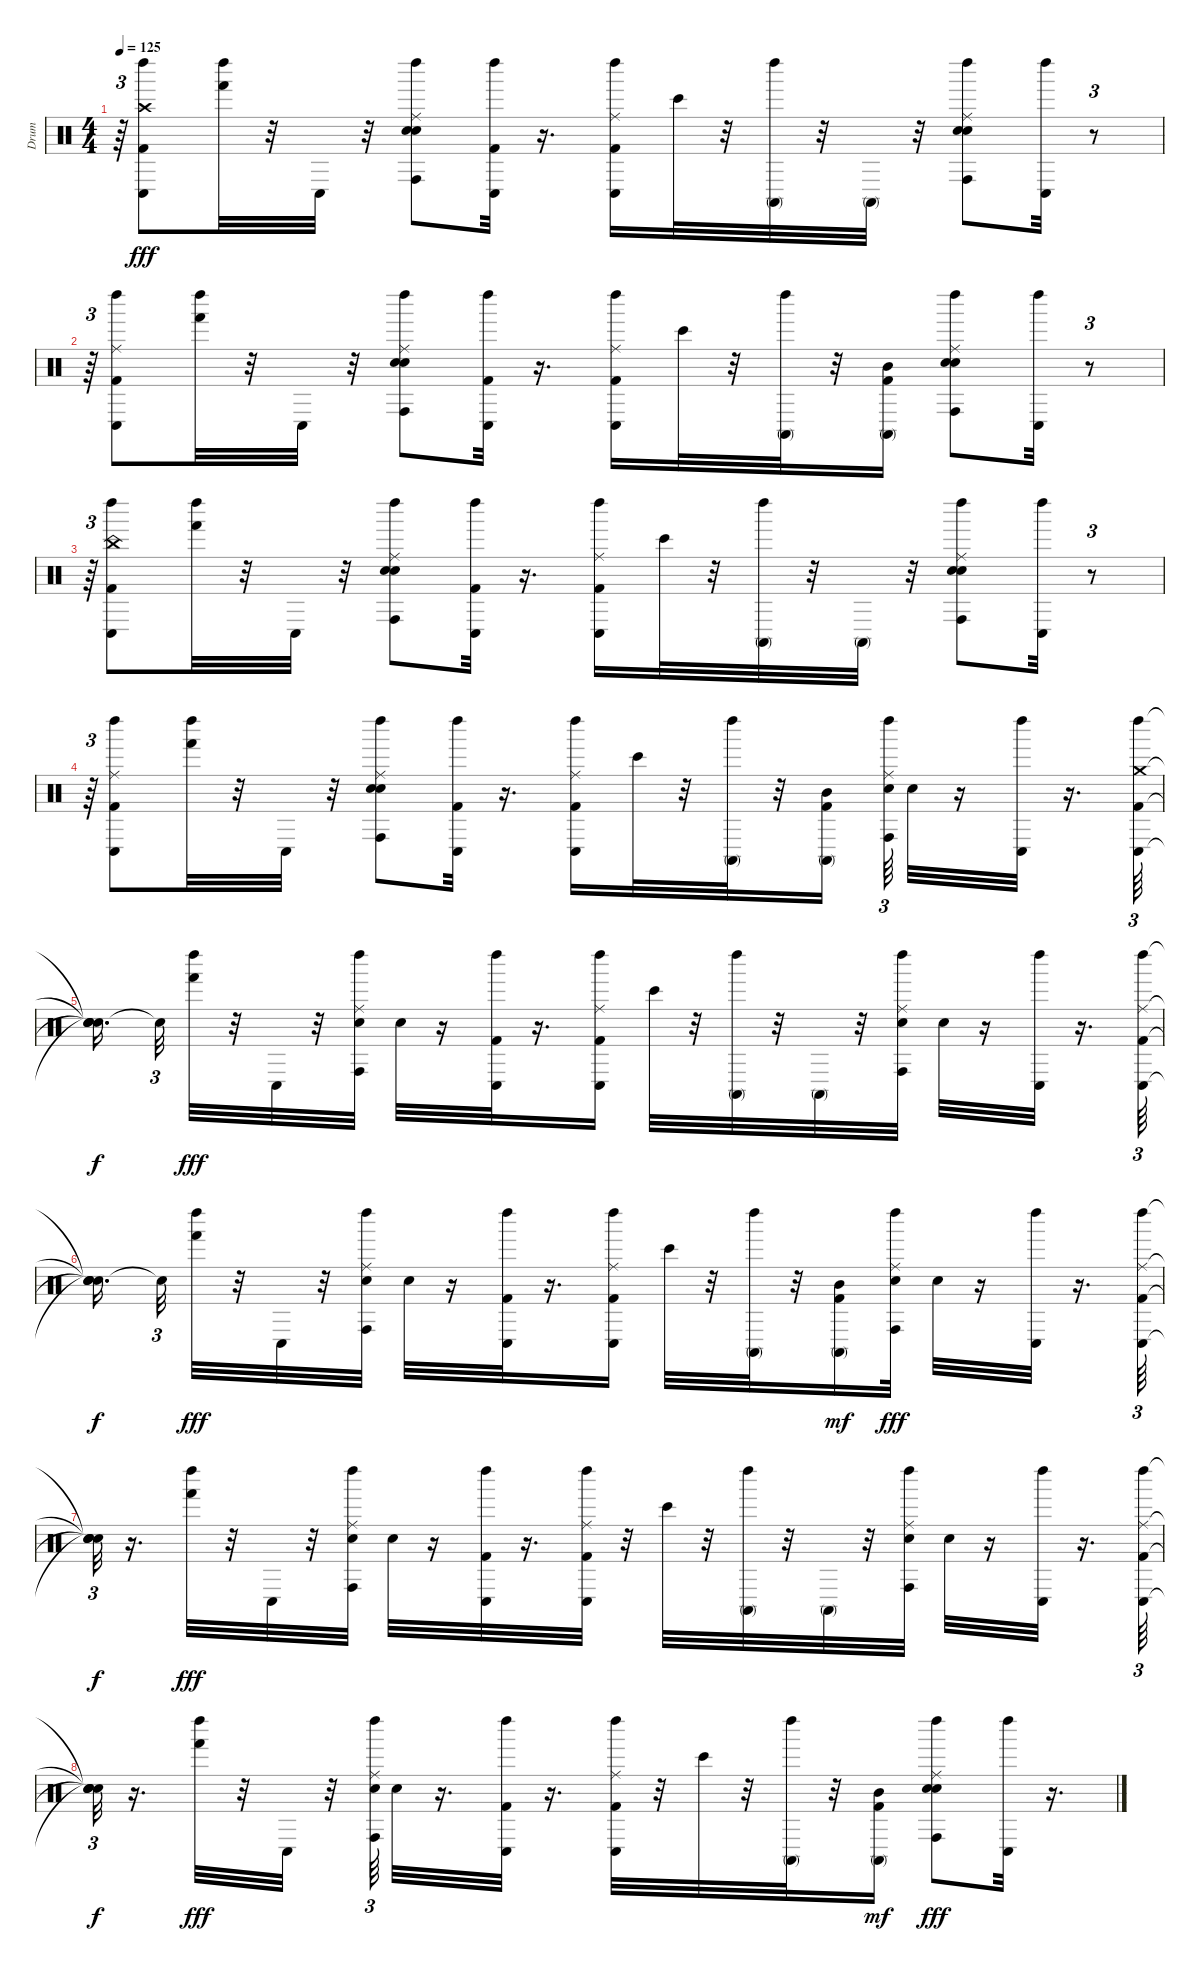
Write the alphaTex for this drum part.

\track ("Drum" "Drum") {instrument percussion}
\staff {score}
\articulation defaults
\ts (4 4)
\tempo 125
\clef neutral
\ks c
r.64{tu (3 2) dy fff} ("Kick (hit) 2" "Conga low (hit)" "Left Maraca (hit)" "Crash high (hit)").8 ("Hand (hit)" "Left Maraca (hit)").32 r.32 "Conga low (hit)".32 r.32 ("Conga high (hit)" "Left Maraca (hit)" "Electric Snare (hit)" "Ride (middle)" "Electric Snare (hit)").8 ("Kick (hit) 2" "Conga low (hit)" "Left Maraca (hit)").32 r.16{d} ("Kick (hit) 2" "Conga low (hit)" "Left Maraca (hit)" "Ride (middle)").16 "Bongo High (hit)".32 r.32 ("Conga high (mute)" "Left Maraca (hit)").32 r.32 "Conga high (mute)".32 r.32 ("Conga high (hit)" "Left Maraca (hit)" "Electric Snare (hit)" "Ride (middle)" "Electric Snare (hit)").8 ("Conga low (hit)" "Left Maraca (hit)").32 r.8{tu (3 2)} |
r.64{tu (3 2)} ("Kick (hit) 2" "Conga low (hit)" "Left Maraca (hit)" "Ride (middle)").8 ("Hand (hit)" "Left Maraca (hit)").32 r.32 "Conga low (hit)".32 r.32 ("Conga high (hit)" "Left Maraca (hit)" "Electric Snare (hit)" "Ride (middle)" "Electric Snare (hit)").8 ("Kick (hit) 2" "Conga low (hit)" "Left Maraca (hit)").32 r.16{d} ("Kick (hit) 2" "Conga low (hit)" "Left Maraca (hit)" "Ride (middle)").16 "Bongo High (hit)".32 r.32 ("Conga high (mute)" "Left Maraca (hit)").32 r.32 ("Kick (hit) 2" "Conga high (mute)" "Mid Tom (hit)").16 ("Conga high (hit)" "Left Maraca (hit)" "Electric Snare (hit)" "Ride (middle)" "Electric Snare (hit)").8 ("Conga low (hit)" "Left Maraca (hit)").32 r.8{tu (3 2)} |
r.64{tu (3 2)} ("Kick (hit) 2" "Conga low (hit)" "Left Maraca (hit)" "China (hit)").8 ("Hand (hit)" "Left Maraca (hit)").32 r.32 "Conga low (hit)".32 r.32 ("Conga high (hit)" "Left Maraca (hit)" "Electric Snare (hit)" "Ride (middle)" "Electric Snare (hit)").8 ("Kick (hit) 2" "Conga low (hit)" "Left Maraca (hit)").32 r.16{d} ("Kick (hit) 2" "Conga low (hit)" "Left Maraca (hit)" "Ride (middle)").16 "Bongo High (hit)".32 r.32 ("Conga high (mute)" "Left Maraca (hit)").32 r.32 "Conga high (mute)".32 r.32 ("Conga high (hit)" "Left Maraca (hit)" "Electric Snare (hit)" "Ride (middle)" "Electric Snare (hit)").8 ("Conga low (hit)" "Left Maraca (hit)").32 r.8{tu (3 2)} |
r.64{tu (3 2)} ("Kick (hit) 2" "Conga low (hit)" "Left Maraca (hit)" "Ride (middle)").8 ("Hand (hit)" "Left Maraca (hit)").32 r.32 "Conga low (hit)".32 r.32 ("Conga high (hit)" "Left Maraca (hit)" "Electric Snare (hit)" "Ride (middle)" "Electric Snare (hit)").8 ("Kick (hit) 2" "Conga low (hit)" "Left Maraca (hit)").32 r.16{d} ("Kick (hit) 2" "Conga low (hit)" "Left Maraca (hit)" "Ride (middle)").16 "Bongo High (hit)".32 r.32 ("Conga high (mute)" "Left Maraca (hit)").32 r.32 ("Kick (hit) 2" "Conga high (mute)" "Mid Tom (hit)").16 ("Conga high (hit)" "Left Maraca (hit)" "Electric Snare (hit)" "Ride (middle)").64{tu (3 2)} "Electric Snare (hit)".32 r.16 ("Conga low (hit)" "Left Maraca (hit)").32 r.16{d} ("Kick (hit) 2" "Conga low (hit)" "Left Maraca (hit)" "Crash medium (hit)").64{tu (3 2)} |
("Snare (hit)"{t} "Snare (hit)"{t} "Snare (hit)"{t} "Snare (hit)"{t}).16{d dy f beam splitsecondary} "Snare (hit)"{t}.32{tu (3 2)} ("Hand (hit)" "Left Maraca (hit)").32{dy fff} r.32 "Conga low (hit)".32 r.32 ("Conga high (hit)" "Left Maraca (hit)" "Electric Snare (hit)" "Ride (middle)").32 "Electric Snare (hit)".32 r.16 ("Kick (hit) 2" "Conga low (hit)" "Left Maraca (hit)").32 r.16{d} ("Kick (hit) 2" "Conga low (hit)" "Left Maraca (hit)" "Ride (middle)").16 "Bongo High (hit)".32 r.32 ("Conga high (mute)" "Left Maraca (hit)").32 r.32 "Conga high (mute)".32 r.32 ("Conga high (hit)" "Left Maraca (hit)" "Electric Snare (hit)" "Ride (middle)").32 "Electric Snare (hit)".32 r.16 ("Conga low (hit)" "Left Maraca (hit)").32 r.16{d} ("Kick (hit) 2" "Conga low (hit)" "Left Maraca (hit)" "Ride (middle)").64{tu (3 2)} |
("Snare (hit)"{t} "Snare (hit)"{t} "Snare (hit)"{t} "Snare (hit)"{t}).16{d dy f beam splitsecondary} "Snare (hit)"{t}.32{tu (3 2)} ("Hand (hit)" "Left Maraca (hit)").32{dy fff} r.32 "Conga low (hit)".32 r.32 ("Conga high (hit)" "Left Maraca (hit)" "Electric Snare (hit)" "Ride (middle)").32 "Electric Snare (hit)".32 r.16 ("Kick (hit) 2" "Conga low (hit)" "Left Maraca (hit)").32 r.16{d} ("Kick (hit) 2" "Conga low (hit)" "Left Maraca (hit)" "Ride (middle)").16 "Bongo High (hit)".32 r.32 ("Conga high (mute)" "Left Maraca (hit)").32 r.32 ("Kick (hit) 2" "Conga high (mute)" "Mid Tom (hit)").16{dy mf} ("Conga high (hit)" "Left Maraca (hit)" "Electric Snare (hit)" "Ride (middle)").32{dy fff} "Electric Snare (hit)".32 r.16 ("Conga low (hit)" "Left Maraca (hit)").32 r.16{d} ("Kick (hit) 2" "Conga low (hit)" "Left Maraca (hit)" "Ride (middle)").64{tu (3 2)} |
("Snare (hit)"{t} "Snare (hit)"{t} "Snare (hit)"{t} "Snare (hit)"{t}).32{tu (3 2) dy f} r.16{d} ("Hand (hit)" "Left Maraca (hit)").32{dy fff} r.32 "Conga low (hit)".32 r.32 ("Conga high (hit)" "Left Maraca (hit)" "Electric Snare (hit)" "Ride (middle)").32 "Electric Snare (hit)".32 r.16 ("Kick (hit) 2" "Conga low (hit)" "Left Maraca (hit)").32 r.16{d} ("Kick (hit) 2" "Conga low (hit)" "Left Maraca (hit)" "Ride (middle)").32 r.32 "Bongo High (hit)".32 r.32 ("Conga high (mute)" "Left Maraca (hit)").32 r.32 "Conga high (mute)".32 r.32 ("Conga high (hit)" "Left Maraca (hit)" "Electric Snare (hit)" "Ride (middle)").32 "Electric Snare (hit)".32 r.16 ("Conga low (hit)" "Left Maraca (hit)").32 r.16{d} ("Kick (hit) 2" "Conga low (hit)" "Left Maraca (hit)" "Ride (middle)").64{tu (3 2)} |
("Snare (hit)"{t} "Snare (hit)"{t} "Snare (hit)"{t} "Snare (hit)"{t}).32{tu (3 2) dy f} r.16{d} ("Hand (hit)" "Left Maraca (hit)").32{dy fff} r.32 "Conga low (hit)".32 r.32 ("Conga high (hit)" "Left Maraca (hit)" "Electric Snare (hit)" "Ride (middle)").64{tu (3 2)} "Electric Snare (hit)".32 r.16{d} ("Kick (hit) 2" "Conga low (hit)" "Left Maraca (hit)").32 r.16{d} ("Kick (hit) 2" "Conga low (hit)" "Left Maraca (hit)" "Ride (middle)").32 r.32 "Bongo High (hit)".32 r.32 ("Conga high (mute)" "Left Maraca (hit)").32 r.32 ("Kick (hit) 2" "Conga high (mute)" "Mid Tom (hit)").16{dy mf} ("Conga high (hit)" "Left Maraca (hit)" "Electric Snare (hit)" "Ride (middle)" "Electric Snare (hit)").8{dy fff} ("Conga low (hit)" "Left Maraca (hit)").32 r.16{d}
